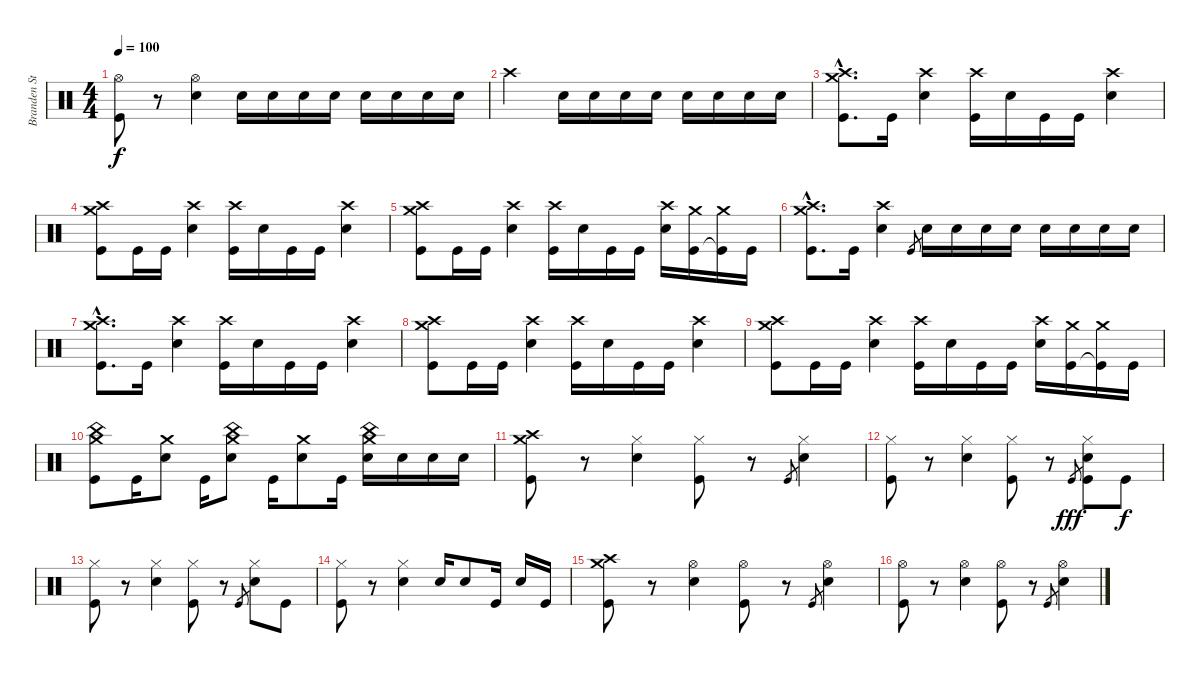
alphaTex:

\track ("Branden Steineckert-drums" "Branden St") {instrument percussion}
\staff {score}
\articulation defaults
\ts (4 4)
\tempo 100
\clef neutral
\ks c
("Hi-Hat (open)" "Kick (hit)").8{dy f} r.8 ("Hi-Hat (open)" "Snare (hit) 2").4 "Snare (hit) 2".16 "Snare (hit) 2".16 "Snare (hit) 2".16 "Snare (hit) 2".16 "Snare (hit) 2".16 "Snare (hit) 2".16 "Snare (hit) 2".16 "Snare (hit) 2".16 |
"Crash high (hit)".2 "Snare (hit) 2".16 "Snare (hit) 2".16 "Snare (hit) 2".16 "Snare (hit) 2".16 "Snare (hit) 2".16 "Snare (hit) 2".16 "Snare (hit) 2".16 "Snare (hit) 2".16 |
("Crash medium (hit)"{hac} "Crash high (hit)"{hac} "Kick (hit)"{hac}).8{d} "Kick (hit)".16 ("Crash high (hit)" "Snare (hit) 2").4 ("Crash high (hit)" "Kick (hit)").16 "Snare (hit) 2".16 "Kick (hit)".16 "Kick (hit)".16 ("Crash high (hit)" "Snare (hit) 2").4 |
("Crash medium (hit)" "Crash high (hit)" "Kick (hit)").8 "Kick (hit)".16 "Kick (hit)".16 ("Crash high (hit)" "Snare (hit) 2").4 ("Crash high (hit)" "Kick (hit)").16 "Snare (hit) 2".16 "Kick (hit)".16 "Kick (hit)".16 ("Crash high (hit)" "Snare (hit) 2").4 |
("Crash medium (hit)" "Crash high (hit)" "Kick (hit)").8 "Kick (hit)".16 "Kick (hit)".16 ("Crash high (hit)" "Snare (hit) 2").4 ("Crash high (hit)" "Kick (hit)").16 "Snare (hit) 2".16 "Kick (hit)".16 "Kick (hit)".16 ("Crash high (hit)" "Snare (hit) 2").16 ("Crash medium (hit)" "Kick (hit)").16 ("Crash medium (hit)" "Kick (hit)"{t}).16 "Kick (hit)".16 |
("Crash medium (hit)"{hac} "Crash high (hit)"{hac} "Kick (hit)"{hac}).8{d} "Kick (hit)".16 ("Crash high (hit)" "Snare (hit) 2").4 "Kick (hit)".8{gr} "Snare (hit) 2".16 "Snare (hit) 2".16 "Snare (hit) 2".16 "Snare (hit) 2".16 "Snare (hit) 2".16 "Snare (hit) 2".16 "Snare (hit) 2".16 "Snare (hit) 2".16 |
("Crash medium (hit)"{hac} "Crash high (hit)"{hac} "Kick (hit)"{hac}).8{d} "Kick (hit)".16 ("Crash high (hit)" "Snare (hit) 2").4 ("Crash high (hit)" "Kick (hit)").16 "Snare (hit) 2".16 "Kick (hit)".16 "Kick (hit)".16 ("Crash high (hit)" "Snare (hit) 2").4 |
("Crash medium (hit)" "Crash high (hit)" "Kick (hit)").8 "Kick (hit)".16 "Kick (hit)".16 ("Crash high (hit)" "Snare (hit) 2").4 ("Crash high (hit)" "Kick (hit)").16 "Snare (hit) 2".16 "Kick (hit)".16 "Kick (hit)".16 ("Crash high (hit)" "Snare (hit) 2").4 |
("Crash medium (hit)" "Crash high (hit)" "Kick (hit)").8 "Kick (hit)".16 "Kick (hit)".16 ("Crash high (hit)" "Snare (hit) 2").4 ("Crash high (hit)" "Kick (hit)").16 "Snare (hit) 2".16 "Kick (hit)".16 "Kick (hit)".16 ("Crash high (hit)" "Snare (hit) 2").16 ("Crash medium (hit)" "Kick (hit)").16 ("Crash medium (hit)" "Kick (hit)"{t}).16 "Kick (hit)".16 |
("China (hit)" "Crash medium (hit)" "Kick (hit)").8 "Kick (hit)".16 ("Crash medium (hit)" "Snare (hit) 2").8 "Kick (hit)".16 ("China (hit)" "Crash medium (hit)" "Snare (hit) 2").8 "Kick (hit)".16 ("Crash medium (hit)" "Snare (hit) 2").8 "Kick (hit)".16 ("China (hit)" "Crash medium (hit)" "Snare (hit) 2").16 "Snare (hit) 2".16 "Snare (hit) 2".16 "Snare (hit) 2".16 |
("Crash medium (hit)" "Crash high (hit)" "Kick (hit)").8 r.8 ("Hi-Hat (closed)" "Snare (hit) 2").4 ("Hi-Hat (closed)" "Kick (hit)").8 r.8 "Kick (hit)".8{gr} ("Hi-Hat (closed)" "Snare (hit) 2").4 |
("Hi-Hat (closed)" "Kick (hit)").8 r.8 ("Hi-Hat (closed)" "Snare (hit) 2").4 ("Hi-Hat (closed)" "Kick (hit)").8 r.8 "Kick (hit)".8{gr dy fff} ("Hi-Hat (closed)" "Snare (hit) 2" "Kick (hit)").8 "Kick (hit)".8{dy f} |
("Hi-Hat (closed)" "Kick (hit)").8 r.8 ("Hi-Hat (closed)" "Snare (hit) 2").4 ("Hi-Hat (closed)" "Kick (hit)").8 r.8 "Kick (hit)".8{gr} ("Hi-Hat (closed)" "Snare (hit) 2").8 "Kick (hit)".8 |
("Hi-Hat (closed)" "Kick (hit)").8 r.8 ("Hi-Hat (closed)" "Snare (hit) 2").4 "Snare (hit) 2".16 "Snare (hit) 2".8 "Kick (hit)".16 "Snare (hit) 2".16 "Kick (hit)".16 |
("Crash medium (hit)" "Crash high (hit)" "Kick (hit)").8 r.8 ("Hi-Hat (open)" "Snare (hit) 2").4 ("Hi-Hat (open)" "Kick (hit)").8 r.8 "Kick (hit)".8{gr} ("Hi-Hat (open)" "Snare (hit) 2").4 |
("Hi-Hat (open)" "Kick (hit)").8 r.8 ("Hi-Hat (open)" "Snare (hit) 2").4 ("Hi-Hat (open)" "Kick (hit)").8 r.8 "Kick (hit)".8{gr} ("Hi-Hat (open)" "Snare (hit) 2").4
